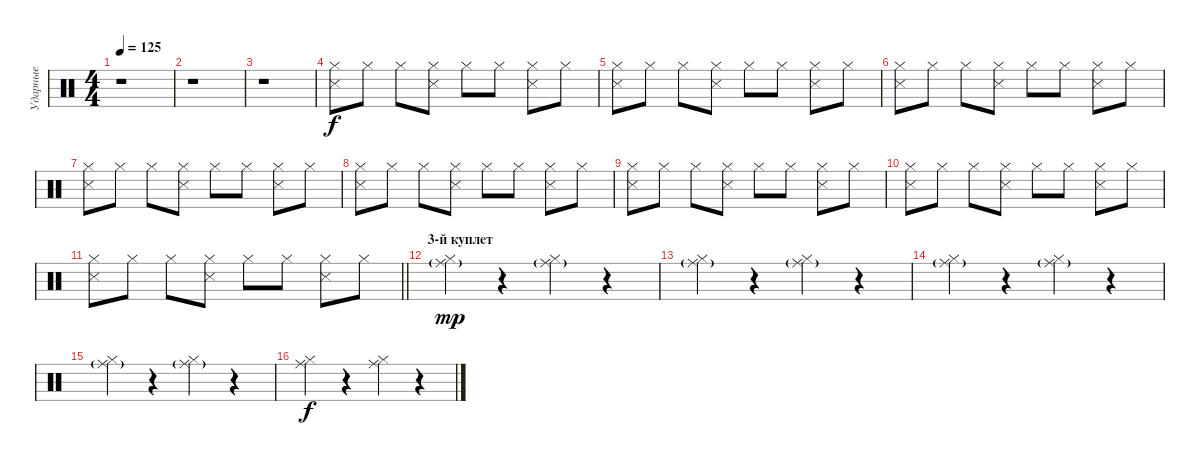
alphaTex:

\track ("Ударные" "Ударные") {instrument percussion}
\staff {score}
\articulation defaults
\ts (4 4)
\tempo 125
\clef neutral
\ks c
r.1{dy f} |
r.1 |
r.1 |
("Hi-Hat (closed)" "Snare (side stick) 3").8 "Hi-Hat (closed)".8 "Hi-Hat (closed)".8 ("Hi-Hat (closed)" "Snare (side stick) 3").8 "Hi-Hat (closed)".8 "Hi-Hat (closed)".8 ("Hi-Hat (closed)" "Snare (side stick) 3").8 "Hi-Hat (closed)".8 |
("Hi-Hat (closed)" "Snare (side stick) 3").8 "Hi-Hat (closed)".8 "Hi-Hat (closed)".8 ("Hi-Hat (closed)" "Snare (side stick) 3").8 "Hi-Hat (closed)".8 "Hi-Hat (closed)".8 ("Hi-Hat (closed)" "Snare (side stick) 3").8 "Hi-Hat (closed)".8 |
("Hi-Hat (closed)" "Snare (side stick) 3").8 "Hi-Hat (closed)".8 "Hi-Hat (closed)".8 ("Hi-Hat (closed)" "Snare (side stick) 3").8 "Hi-Hat (closed)".8 "Hi-Hat (closed)".8 ("Hi-Hat (closed)" "Snare (side stick) 3").8 "Hi-Hat (closed)".8 |
("Hi-Hat (closed)" "Snare (side stick) 3").8 "Hi-Hat (closed)".8 "Hi-Hat (closed)".8 ("Hi-Hat (closed)" "Snare (side stick) 3").8 "Hi-Hat (closed)".8 "Hi-Hat (closed)".8 ("Hi-Hat (closed)" "Snare (side stick) 3").8 "Hi-Hat (closed)".8 |
("Hi-Hat (closed)" "Snare (side stick) 3").8 "Hi-Hat (closed)".8 "Hi-Hat (closed)".8 ("Hi-Hat (closed)" "Snare (side stick) 3").8 "Hi-Hat (closed)".8 "Hi-Hat (closed)".8 ("Hi-Hat (closed)" "Snare (side stick) 3").8 "Hi-Hat (closed)".8 |
("Hi-Hat (closed)" "Snare (side stick) 3").8 "Hi-Hat (closed)".8 "Hi-Hat (closed)".8 ("Hi-Hat (closed)" "Snare (side stick) 3").8 "Hi-Hat (closed)".8 "Hi-Hat (closed)".8 ("Hi-Hat (closed)" "Snare (side stick) 3").8 "Hi-Hat (closed)".8 |
("Hi-Hat (closed)" "Snare (side stick) 3").8 "Hi-Hat (closed)".8 "Hi-Hat (closed)".8 ("Hi-Hat (closed)" "Snare (side stick) 3").8 "Hi-Hat (closed)".8 "Hi-Hat (closed)".8 ("Hi-Hat (closed)" "Snare (side stick) 3").8 "Hi-Hat (closed)".8 |
\barLineRight lightlight
("Hi-Hat (closed)" "Snare (side stick) 3").8 "Hi-Hat (closed)".8 "Hi-Hat (closed)".8 ("Hi-Hat (closed)" "Snare (side stick) 3").8 "Hi-Hat (closed)".8 "Hi-Hat (closed)".8 ("Hi-Hat (closed)" "Snare (side stick) 3").8 "Hi-Hat (closed)".8 |
\section ("" "3-й куплет")
("Hi-Hat (closed)" "Ride (middle)"{g}).4{dy mp} r.4 ("Hi-Hat (closed)" "Ride (middle)"{g}).4 r.4 |
("Hi-Hat (closed)" "Ride (middle)"{g}).4 r.4 ("Hi-Hat (closed)" "Ride (middle)"{g}).4 r.4 |
("Hi-Hat (closed)" "Ride (middle)"{g}).4 r.4 ("Hi-Hat (closed)" "Ride (middle)"{g}).4 r.4 |
("Hi-Hat (closed)" "Ride (middle)"{g}).4 r.4 ("Hi-Hat (closed)" "Ride (middle)"{g}).4 r.4 |
("Hi-Hat (closed)" "Ride (middle)").4{dy f} r.4 ("Hi-Hat (closed)" "Ride (middle)").4 r.4
